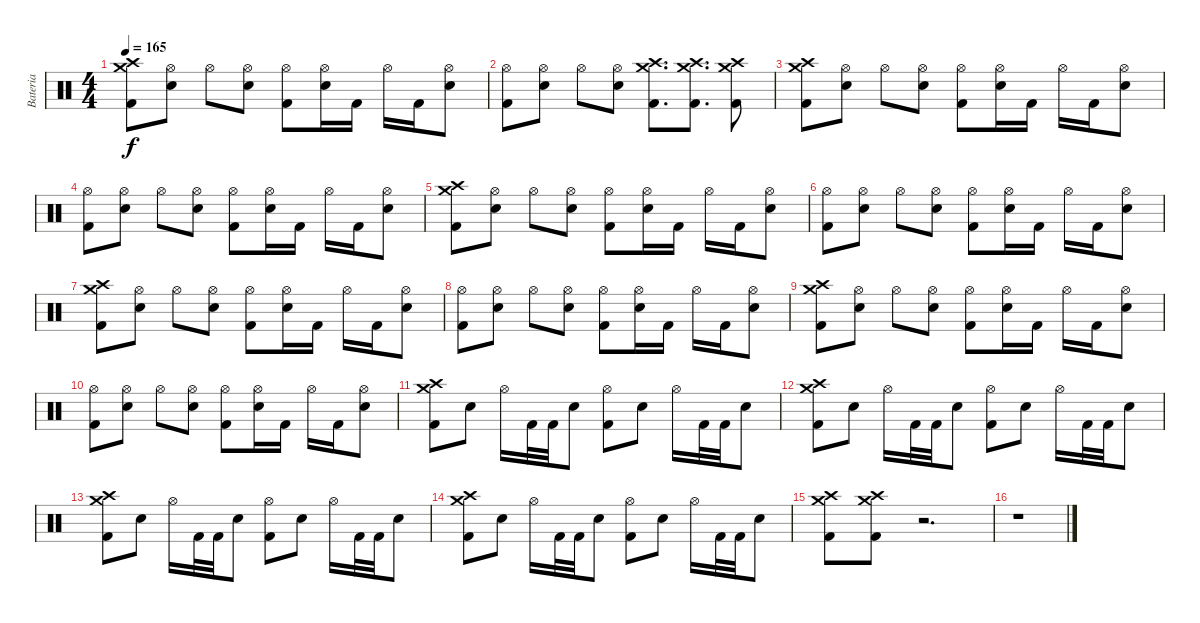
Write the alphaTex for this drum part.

\track ("Bateria" "Bateria") {instrument percussion}
\staff {score}
\articulation defaults
\ts (4 4)
\tempo 165
\clef neutral
\ks c
("Kick (hit) 2" "Crash medium (hit)" "Crash high (hit)").8{dy f} ("Hi-Hat (open)" "Electric Snare (hit)").8 "Hi-Hat (open)".8 ("Hi-Hat (open)" "Electric Snare (hit)").8 ("Kick (hit) 2" "Hi-Hat (open)").8 ("Hi-Hat (open)" "Electric Snare (hit)").16 "Kick (hit) 2".16 "Hi-Hat (open)".16 "Kick (hit) 2".16 ("Hi-Hat (open)" "Electric Snare (hit)").8 |
("Kick (hit) 2" "Hi-Hat (open)").8 ("Hi-Hat (open)" "Electric Snare (hit)").8 "Hi-Hat (open)".8 ("Hi-Hat (open)" "Electric Snare (hit)").8 ("Kick (hit) 2" "Crash medium (hit)" "Crash high (hit)").8{d} ("Kick (hit) 2" "Crash medium (hit)" "Crash high (hit)").8{d} ("Kick (hit) 2" "Crash medium (hit)" "Crash high (hit)").8 |
("Kick (hit) 2" "Crash medium (hit)" "Crash high (hit)").8 ("Hi-Hat (open)" "Electric Snare (hit)").8 "Hi-Hat (open)".8 ("Hi-Hat (open)" "Electric Snare (hit)").8 ("Kick (hit) 2" "Hi-Hat (open)").8 ("Hi-Hat (open)" "Electric Snare (hit)").16 "Kick (hit) 2".16 "Hi-Hat (open)".16 "Kick (hit) 2".16 ("Hi-Hat (open)" "Electric Snare (hit)").8 |
("Kick (hit) 2" "Hi-Hat (open)").8 ("Hi-Hat (open)" "Electric Snare (hit)").8 "Hi-Hat (open)".8 ("Hi-Hat (open)" "Electric Snare (hit)").8 ("Kick (hit) 2" "Hi-Hat (open)").8 ("Hi-Hat (open)" "Electric Snare (hit)").16 "Kick (hit) 2".16 "Hi-Hat (open)".16 "Kick (hit) 2".16 ("Hi-Hat (open)" "Electric Snare (hit)").8 |
("Kick (hit) 2" "Crash medium (hit)" "Crash high (hit)").8 ("Hi-Hat (open)" "Electric Snare (hit)").8 "Hi-Hat (open)".8 ("Hi-Hat (open)" "Electric Snare (hit)").8 ("Kick (hit) 2" "Hi-Hat (open)").8 ("Hi-Hat (open)" "Electric Snare (hit)").16 "Kick (hit) 2".16 "Hi-Hat (open)".16 "Kick (hit) 2".16 ("Hi-Hat (open)" "Electric Snare (hit)").8 |
("Kick (hit) 2" "Hi-Hat (open)").8 ("Hi-Hat (open)" "Electric Snare (hit)").8 "Hi-Hat (open)".8 ("Hi-Hat (open)" "Electric Snare (hit)").8 ("Kick (hit) 2" "Hi-Hat (open)").8 ("Hi-Hat (open)" "Electric Snare (hit)").16 "Kick (hit) 2".16 "Hi-Hat (open)".16 "Kick (hit) 2".16 ("Hi-Hat (open)" "Electric Snare (hit)").8 |
("Kick (hit) 2" "Crash medium (hit)" "Crash high (hit)").8 ("Hi-Hat (open)" "Electric Snare (hit)").8 "Hi-Hat (open)".8 ("Hi-Hat (open)" "Electric Snare (hit)").8 ("Kick (hit) 2" "Hi-Hat (open)").8 ("Hi-Hat (open)" "Electric Snare (hit)").16 "Kick (hit) 2".16 "Hi-Hat (open)".16 "Kick (hit) 2".16 ("Hi-Hat (open)" "Electric Snare (hit)").8 |
("Kick (hit) 2" "Hi-Hat (open)").8 ("Hi-Hat (open)" "Electric Snare (hit)").8 "Hi-Hat (open)".8 ("Hi-Hat (open)" "Electric Snare (hit)").8 ("Kick (hit) 2" "Hi-Hat (open)").8 ("Hi-Hat (open)" "Electric Snare (hit)").16 "Kick (hit) 2".16 "Hi-Hat (open)".16 "Kick (hit) 2".16 ("Hi-Hat (open)" "Electric Snare (hit)").8 |
("Kick (hit) 2" "Crash medium (hit)" "Crash high (hit)").8 ("Hi-Hat (open)" "Electric Snare (hit)").8 "Hi-Hat (open)".8 ("Hi-Hat (open)" "Electric Snare (hit)").8 ("Kick (hit) 2" "Hi-Hat (open)").8 ("Hi-Hat (open)" "Electric Snare (hit)").16 "Kick (hit) 2".16 "Hi-Hat (open)".16 "Kick (hit) 2".16 ("Hi-Hat (open)" "Electric Snare (hit)").8 |
("Kick (hit) 2" "Hi-Hat (open)").8 ("Hi-Hat (open)" "Electric Snare (hit)").8 "Hi-Hat (open)".8 ("Hi-Hat (open)" "Electric Snare (hit)").8 ("Kick (hit) 2" "Hi-Hat (open)").8 ("Hi-Hat (open)" "Electric Snare (hit)").16 "Kick (hit) 2".16 "Hi-Hat (open)".16 "Kick (hit) 2".16 ("Hi-Hat (open)" "Electric Snare (hit)").8 |
("Kick (hit) 2" "Crash medium (hit)" "Crash high (hit)").8 "Electric Snare (hit)".8 "Hi-Hat (open)".16 "Kick (hit) 2".32 "Kick (hit) 2".32 "Electric Snare (hit)".8 ("Kick (hit) 2" "Hi-Hat (open)").8 "Electric Snare (hit)".8 "Hi-Hat (open)".16 "Kick (hit) 2".32 "Kick (hit) 2".32 "Electric Snare (hit)".8 |
("Kick (hit) 2" "Crash medium (hit)" "Crash high (hit)").8 "Electric Snare (hit)".8 "Hi-Hat (open)".16 "Kick (hit) 2".32 "Kick (hit) 2".32 "Electric Snare (hit)".8 ("Kick (hit) 2" "Hi-Hat (open)").8 "Electric Snare (hit)".8 "Hi-Hat (open)".16 "Kick (hit) 2".32 "Kick (hit) 2".32 "Electric Snare (hit)".8 |
("Kick (hit) 2" "Crash medium (hit)" "Crash high (hit)").8 "Electric Snare (hit)".8 "Hi-Hat (open)".16 "Kick (hit) 2".32 "Kick (hit) 2".32 "Electric Snare (hit)".8 ("Kick (hit) 2" "Hi-Hat (open)").8 "Electric Snare (hit)".8 "Hi-Hat (open)".16 "Kick (hit) 2".32 "Kick (hit) 2".32 "Electric Snare (hit)".8 |
("Kick (hit) 2" "Crash medium (hit)" "Crash high (hit)").8 "Electric Snare (hit)".8 "Hi-Hat (open)".16 "Kick (hit) 2".32 "Kick (hit) 2".32 "Electric Snare (hit)".8 ("Kick (hit) 2" "Hi-Hat (open)").8 "Electric Snare (hit)".8 "Hi-Hat (open)".16 "Kick (hit) 2".32 "Kick (hit) 2".32 "Electric Snare (hit)".8 |
("Kick (hit) 2" "Crash medium (hit)" "Crash high (hit)").8 ("Kick (hit) 2" "Crash medium (hit)" "Crash high (hit)").8 r.2{d} |
r.1
